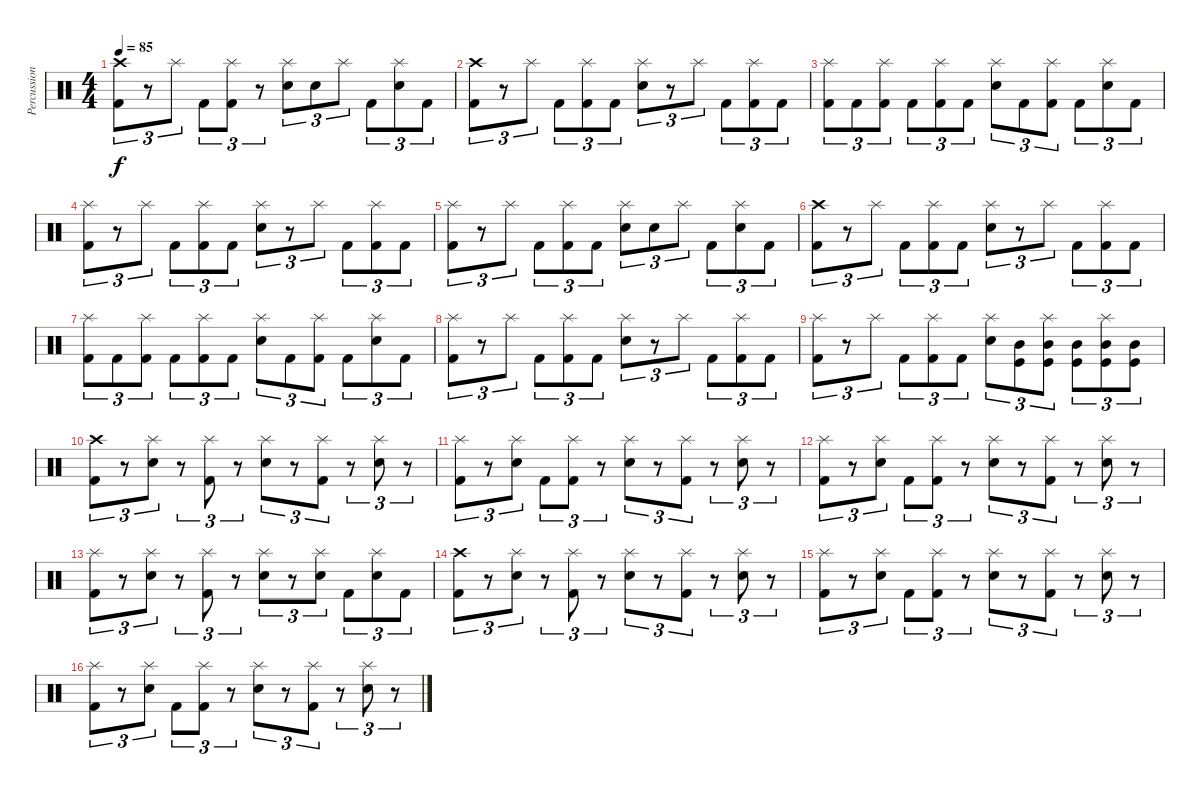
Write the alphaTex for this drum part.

\track ("Percussion" "Percussion") {instrument percussion}
\staff {score}
\articulation defaults
\ts (4 4)
\tempo 85
\clef neutral
\ks c
("Crash high (hit)" "Kick (hit) 2").8{tu (3 2) dy f} r.8{tu (3 2)} "Splash (hit)".8{tu (3 2)} "Kick (hit) 2".8{tu (3 2)} ("Splash (hit)" "Kick (hit) 2").8{tu (3 2)} r.8{tu (3 2)} ("Splash (hit)" "Electric Snare (hit)").8{tu (3 2)} "Electric Snare (hit)".8{tu (3 2)} "Splash (hit)".8{tu (3 2)} "Kick (hit) 2".8{tu (3 2)} ("Splash (hit)" "Electric Snare (hit)").8{tu (3 2)} "Kick (hit) 2".8{tu (3 2)} |
("Crash high (hit)" "Kick (hit) 2").8{tu (3 2)} r.8{tu (3 2)} "Splash (hit)".8{tu (3 2)} "Kick (hit) 2".8{tu (3 2)} ("Splash (hit)" "Kick (hit) 2").8{tu (3 2)} "Kick (hit) 2".8{tu (3 2)} ("Splash (hit)" "Electric Snare (hit)").8{tu (3 2)} r.8{tu (3 2)} "Splash (hit)".8{tu (3 2)} "Kick (hit) 2".8{tu (3 2)} ("Splash (hit)" "Kick (hit) 2").8{tu (3 2)} "Kick (hit) 2".8{tu (3 2)} |
("Splash (hit)" "Kick (hit) 2").8{tu (3 2)} "Kick (hit) 2".8{tu (3 2)} ("Splash (hit)" "Kick (hit) 2").8{tu (3 2)} "Kick (hit) 2".8{tu (3 2)} ("Splash (hit)" "Kick (hit) 2").8{tu (3 2)} "Kick (hit) 2".8{tu (3 2)} ("Splash (hit)" "Electric Snare (hit)").8{tu (3 2)} "Kick (hit) 2".8{tu (3 2)} ("Splash (hit)" "Kick (hit) 2").8{tu (3 2)} "Kick (hit) 2".8{tu (3 2)} ("Splash (hit)" "Electric Snare (hit)").8{tu (3 2)} "Kick (hit) 2".8{tu (3 2)} |
("Splash (hit)" "Kick (hit) 2").8{tu (3 2)} r.8{tu (3 2)} "Splash (hit)".8{tu (3 2)} "Kick (hit) 2".8{tu (3 2)} ("Splash (hit)" "Kick (hit) 2").8{tu (3 2)} "Kick (hit) 2".8{tu (3 2)} ("Splash (hit)" "Electric Snare (hit)").8{tu (3 2)} r.8{tu (3 2)} "Splash (hit)".8{tu (3 2)} "Kick (hit) 2".8{tu (3 2)} ("Splash (hit)" "Kick (hit) 2").8{tu (3 2)} "Kick (hit) 2".8{tu (3 2)} |
("Splash (hit)" "Kick (hit) 2").8{tu (3 2)} r.8{tu (3 2)} "Splash (hit)".8{tu (3 2)} "Kick (hit) 2".8{tu (3 2)} ("Splash (hit)" "Kick (hit) 2").8{tu (3 2)} "Kick (hit) 2".8{tu (3 2)} ("Splash (hit)" "Electric Snare (hit)").8{tu (3 2)} "Electric Snare (hit)".8{tu (3 2)} "Splash (hit)".8{tu (3 2)} "Kick (hit) 2".8{tu (3 2)} ("Splash (hit)" "Electric Snare (hit)").8{tu (3 2)} "Kick (hit) 2".8{tu (3 2)} |
("Crash high (hit)" "Kick (hit) 2").8{tu (3 2)} r.8{tu (3 2)} "Splash (hit)".8{tu (3 2)} "Kick (hit) 2".8{tu (3 2)} ("Splash (hit)" "Kick (hit) 2").8{tu (3 2)} "Kick (hit) 2".8{tu (3 2)} ("Splash (hit)" "Electric Snare (hit)").8{tu (3 2)} r.8{tu (3 2)} "Splash (hit)".8{tu (3 2)} "Kick (hit) 2".8{tu (3 2)} ("Splash (hit)" "Kick (hit) 2").8{tu (3 2)} "Kick (hit) 2".8{tu (3 2)} |
("Splash (hit)" "Kick (hit) 2").8{tu (3 2)} "Kick (hit) 2".8{tu (3 2)} ("Splash (hit)" "Kick (hit) 2").8{tu (3 2)} "Kick (hit) 2".8{tu (3 2)} ("Splash (hit)" "Kick (hit) 2").8{tu (3 2)} "Kick (hit) 2".8{tu (3 2)} ("Splash (hit)" "Electric Snare (hit)").8{tu (3 2)} "Kick (hit) 2".8{tu (3 2)} ("Splash (hit)" "Kick (hit) 2").8{tu (3 2)} "Kick (hit) 2".8{tu (3 2)} ("Splash (hit)" "Electric Snare (hit)").8{tu (3 2)} "Kick (hit) 2".8{tu (3 2)} |
("Splash (hit)" "Kick (hit) 2").8{tu (3 2)} r.8{tu (3 2)} "Splash (hit)".8{tu (3 2)} "Kick (hit) 2".8{tu (3 2)} ("Splash (hit)" "Kick (hit) 2").8{tu (3 2)} "Kick (hit) 2".8{tu (3 2)} ("Splash (hit)" "Electric Snare (hit)").8{tu (3 2)} r.8{tu (3 2)} "Splash (hit)".8{tu (3 2)} "Kick (hit) 2".8{tu (3 2)} ("Splash (hit)" "Kick (hit) 2").8{tu (3 2)} "Kick (hit) 2".8{tu (3 2)} |
("Splash (hit)" "Kick (hit) 2").8{tu (3 2)} r.8{tu (3 2)} "Splash (hit)".8{tu (3 2)} "Kick (hit) 2".8{tu (3 2)} ("Splash (hit)" "Kick (hit) 2").8{tu (3 2)} "Kick (hit) 2".8{tu (3 2)} ("Splash (hit)" "Electric Snare (hit)").8{tu (3 2)} ("Mid Tom (hit)" "Kick (hit)").8{tu (3 2)} ("Splash (hit)" "Mid Tom (hit)" "Kick (hit)").8{tu (3 2)} ("Mid Tom (hit)" "Kick (hit)").8{tu (3 2)} ("Splash (hit)" "Mid Tom (hit)" "Kick (hit)").8{tu (3 2)} ("Mid Tom (hit)" "Kick (hit)").8{tu (3 2)} |
("Crash high (hit)" "Kick (hit) 2").8{tu (3 2)} r.8{tu (3 2)} ("Splash (hit)" "Electric Snare (hit)").8{tu (3 2)} r.8{tu (3 2)} ("Splash (hit)" "Kick (hit) 2").8{tu (3 2)} r.8{tu (3 2)} ("Splash (hit)" "Electric Snare (hit)").8{tu (3 2)} r.8{tu (3 2)} ("Splash (hit)" "Kick (hit) 2").8{tu (3 2)} r.8{tu (3 2)} ("Splash (hit)" "Electric Snare (hit)").8{tu (3 2)} r.8{tu (3 2)} |
("Splash (hit)" "Kick (hit) 2").8{tu (3 2)} r.8{tu (3 2)} ("Splash (hit)" "Electric Snare (hit)").8{tu (3 2)} "Kick (hit) 2".8{tu (3 2)} ("Splash (hit)" "Kick (hit) 2").8{tu (3 2)} r.8{tu (3 2)} ("Splash (hit)" "Electric Snare (hit)").8{tu (3 2)} r.8{tu (3 2)} ("Splash (hit)" "Kick (hit) 2").8{tu (3 2)} r.8{tu (3 2)} ("Splash (hit)" "Electric Snare (hit)").8{tu (3 2)} r.8{tu (3 2)} |
("Splash (hit)" "Kick (hit) 2").8{tu (3 2)} r.8{tu (3 2)} ("Splash (hit)" "Electric Snare (hit)").8{tu (3 2)} "Kick (hit) 2".8{tu (3 2)} ("Splash (hit)" "Kick (hit) 2").8{tu (3 2)} r.8{tu (3 2)} ("Splash (hit)" "Electric Snare (hit)").8{tu (3 2)} r.8{tu (3 2)} ("Splash (hit)" "Kick (hit) 2").8{tu (3 2)} r.8{tu (3 2)} ("Splash (hit)" "Electric Snare (hit)").8{tu (3 2)} r.8{tu (3 2)} |
("Splash (hit)" "Kick (hit) 2").8{tu (3 2)} r.8{tu (3 2)} ("Splash (hit)" "Electric Snare (hit)").8{tu (3 2)} r.8{tu (3 2)} ("Splash (hit)" "Kick (hit) 2").8{tu (3 2)} r.8{tu (3 2)} ("Splash (hit)" "Electric Snare (hit)").8{tu (3 2)} r.8{tu (3 2)} ("Splash (hit)" "Electric Snare (hit)").8{tu (3 2)} "Kick (hit) 2".8{tu (3 2)} ("Splash (hit)" "Electric Snare (hit)").8{tu (3 2)} "Kick (hit) 2".8{tu (3 2)} |
("Crash high (hit)" "Kick (hit) 2").8{tu (3 2)} r.8{tu (3 2)} ("Splash (hit)" "Electric Snare (hit)").8{tu (3 2)} r.8{tu (3 2)} ("Splash (hit)" "Kick (hit) 2").8{tu (3 2)} r.8{tu (3 2)} ("Splash (hit)" "Electric Snare (hit)").8{tu (3 2)} r.8{tu (3 2)} ("Splash (hit)" "Kick (hit) 2").8{tu (3 2)} r.8{tu (3 2)} ("Splash (hit)" "Electric Snare (hit)").8{tu (3 2)} r.8{tu (3 2)} |
("Splash (hit)" "Kick (hit) 2").8{tu (3 2)} r.8{tu (3 2)} ("Splash (hit)" "Electric Snare (hit)").8{tu (3 2)} "Kick (hit) 2".8{tu (3 2)} ("Splash (hit)" "Kick (hit) 2").8{tu (3 2)} r.8{tu (3 2)} ("Splash (hit)" "Electric Snare (hit)").8{tu (3 2)} r.8{tu (3 2)} ("Splash (hit)" "Kick (hit) 2").8{tu (3 2)} r.8{tu (3 2)} ("Splash (hit)" "Electric Snare (hit)").8{tu (3 2)} r.8{tu (3 2)} |
("Splash (hit)" "Kick (hit) 2").8{tu (3 2)} r.8{tu (3 2)} ("Splash (hit)" "Electric Snare (hit)").8{tu (3 2)} "Kick (hit) 2".8{tu (3 2)} ("Splash (hit)" "Kick (hit) 2").8{tu (3 2)} r.8{tu (3 2)} ("Splash (hit)" "Electric Snare (hit)").8{tu (3 2)} r.8{tu (3 2)} ("Splash (hit)" "Kick (hit) 2").8{tu (3 2)} r.8{tu (3 2)} ("Splash (hit)" "Electric Snare (hit)").8{tu (3 2)} r.8{tu (3 2)}
